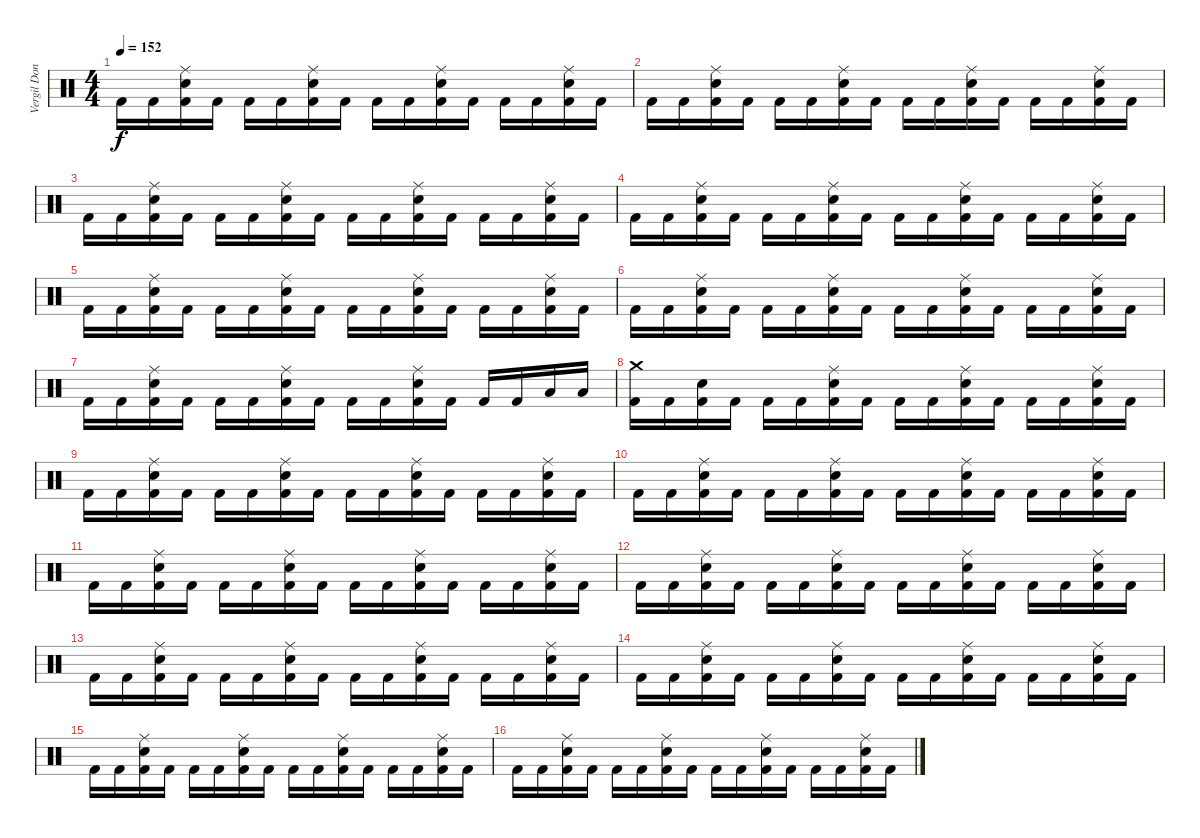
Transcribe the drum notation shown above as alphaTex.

\track ("Vergil Donati" "Vergil Don") {instrument percussion}
\staff {score}
\articulation defaults
\ts (4 4)
\tempo 152
\clef neutral
\ks c "Kick (hit) 2".16{dy f} "Kick (hit) 2".16
("Electric Snare (hit)" "Ride (middle)" "Kick (hit) 2").16 "Kick (hit) 2".16 "Kick (hit) 2".16 "Kick (hit) 2".16 ("Electric Snare (hit)" "Ride (middle)" "Kick (hit) 2").16 "Kick (hit) 2".16 "Kick (hit) 2".16 "Kick (hit) 2".16 ("Electric Snare (hit)" "Ride (middle)" "Kick (hit) 2").16 "Kick (hit) 2".16 "Kick (hit) 2".16 "Kick (hit) 2".16 ("Electric Snare (hit)" "Ride (middle)" "Kick (hit) 2").16 "Kick (hit) 2".16 |
"Kick (hit) 2".16 "Kick (hit) 2".16 ("Electric Snare (hit)" "Ride (middle)" "Kick (hit) 2").16 "Kick (hit) 2".16 "Kick (hit) 2".16 "Kick (hit) 2".16 ("Electric Snare (hit)" "Ride (middle)" "Kick (hit) 2").16 "Kick (hit) 2".16 "Kick (hit) 2".16 "Kick (hit) 2".16 ("Electric Snare (hit)" "Ride (middle)" "Kick (hit) 2").16 "Kick (hit) 2".16 "Kick (hit) 2".16 "Kick (hit) 2".16 ("Electric Snare (hit)" "Ride (middle)" "Kick (hit) 2").16 "Kick (hit) 2".16 |
"Kick (hit) 2".16 "Kick (hit) 2".16 ("Electric Snare (hit)" "Ride (middle)" "Kick (hit) 2").16 "Kick (hit) 2".16 "Kick (hit) 2".16 "Kick (hit) 2".16 ("Electric Snare (hit)" "Ride (middle)" "Kick (hit) 2").16 "Kick (hit) 2".16 "Kick (hit) 2".16 "Kick (hit) 2".16 ("Electric Snare (hit)" "Ride (middle)" "Kick (hit) 2").16 "Kick (hit) 2".16 "Kick (hit) 2".16 "Kick (hit) 2".16 ("Electric Snare (hit)" "Ride (middle)" "Kick (hit) 2").16 "Kick (hit) 2".16 |
"Kick (hit) 2".16 "Kick (hit) 2".16 ("Electric Snare (hit)" "Ride (middle)" "Kick (hit) 2").16 "Kick (hit) 2".16 "Kick (hit) 2".16 "Kick (hit) 2".16 ("Electric Snare (hit)" "Ride (middle)" "Kick (hit) 2").16 "Kick (hit) 2".16 "Kick (hit) 2".16 "Kick (hit) 2".16 ("Electric Snare (hit)" "Ride (middle)" "Kick (hit) 2").16 "Kick (hit) 2".16 "Kick (hit) 2".16 "Kick (hit) 2".16 ("Electric Snare (hit)" "Ride (middle)" "Kick (hit) 2").16 "Kick (hit) 2".16 |
"Kick (hit) 2".16 "Kick (hit) 2".16 ("Electric Snare (hit)" "Ride (middle)" "Kick (hit) 2").16 "Kick (hit) 2".16 "Kick (hit) 2".16 "Kick (hit) 2".16 ("Electric Snare (hit)" "Ride (middle)" "Kick (hit) 2").16 "Kick (hit) 2".16 "Kick (hit) 2".16 "Kick (hit) 2".16 ("Electric Snare (hit)" "Ride (middle)" "Kick (hit) 2").16 "Kick (hit) 2".16 "Kick (hit) 2".16 "Kick (hit) 2".16 ("Electric Snare (hit)" "Ride (middle)" "Kick (hit) 2").16 "Kick (hit) 2".16 |
"Kick (hit) 2".16 "Kick (hit) 2".16 ("Electric Snare (hit)" "Ride (middle)" "Kick (hit) 2").16 "Kick (hit) 2".16 "Kick (hit) 2".16 "Kick (hit) 2".16 ("Electric Snare (hit)" "Ride (middle)" "Kick (hit) 2").16 "Kick (hit) 2".16 "Kick (hit) 2".16 "Kick (hit) 2".16 ("Electric Snare (hit)" "Ride (middle)" "Kick (hit) 2").16 "Kick (hit) 2".16 "Kick (hit) 2".16 "Kick (hit) 2".16 ("Electric Snare (hit)" "Ride (middle)" "Kick (hit) 2").16 "Kick (hit) 2".16 |
"Kick (hit) 2".16 "Kick (hit) 2".16 ("Electric Snare (hit)" "Ride (middle)" "Kick (hit) 2").16 "Kick (hit) 2".16 "Kick (hit) 2".16 "Kick (hit) 2".16 ("Electric Snare (hit)" "Ride (middle)" "Kick (hit) 2").16 "Kick (hit) 2".16 "Kick (hit) 2".16 "Kick (hit) 2".16 ("Electric Snare (hit)" "Ride (middle)" "Kick (hit) 2").16 "Kick (hit) 2".16 "Kick (hit) 2".16 "Kick (hit) 2".16 "Low Floor Tom (hit)".16 "Low Floor Tom (hit)".16 |
("Crash medium (hit)" "Kick (hit) 2").16 "Kick (hit) 2".16 ("Electric Snare (hit)" "Kick (hit) 2").16 "Kick (hit) 2".16 "Kick (hit) 2".16 "Kick (hit) 2".16 ("Electric Snare (hit)" "Ride (middle)" "Kick (hit) 2").16 "Kick (hit) 2".16 "Kick (hit) 2".16 "Kick (hit) 2".16 ("Electric Snare (hit)" "Ride (middle)" "Kick (hit) 2").16 "Kick (hit) 2".16 "Kick (hit) 2".16 "Kick (hit) 2".16 ("Electric Snare (hit)" "Ride (middle)" "Kick (hit) 2").16 "Kick (hit) 2".16 |
"Kick (hit) 2".16 "Kick (hit) 2".16 ("Electric Snare (hit)" "Ride (middle)" "Kick (hit) 2").16 "Kick (hit) 2".16 "Kick (hit) 2".16 "Kick (hit) 2".16 ("Electric Snare (hit)" "Ride (middle)" "Kick (hit) 2").16 "Kick (hit) 2".16 "Kick (hit) 2".16 "Kick (hit) 2".16 ("Electric Snare (hit)" "Ride (middle)" "Kick (hit) 2").16 "Kick (hit) 2".16 "Kick (hit) 2".16 "Kick (hit) 2".16 ("Electric Snare (hit)" "Ride (middle)" "Kick (hit) 2").16 "Kick (hit) 2".16 |
"Kick (hit) 2".16 "Kick (hit) 2".16 ("Electric Snare (hit)" "Ride (middle)" "Kick (hit) 2").16 "Kick (hit) 2".16 "Kick (hit) 2".16 "Kick (hit) 2".16 ("Electric Snare (hit)" "Ride (middle)" "Kick (hit) 2").16 "Kick (hit) 2".16 "Kick (hit) 2".16 "Kick (hit) 2".16 ("Electric Snare (hit)" "Ride (middle)" "Kick (hit) 2").16 "Kick (hit) 2".16 "Kick (hit) 2".16 "Kick (hit) 2".16 ("Electric Snare (hit)" "Ride (middle)" "Kick (hit) 2").16 "Kick (hit) 2".16 |
"Kick (hit) 2".16 "Kick (hit) 2".16 ("Electric Snare (hit)" "Ride (middle)" "Kick (hit) 2").16 "Kick (hit) 2".16 "Kick (hit) 2".16 "Kick (hit) 2".16 ("Electric Snare (hit)" "Ride (middle)" "Kick (hit) 2").16 "Kick (hit) 2".16 "Kick (hit) 2".16 "Kick (hit) 2".16 ("Electric Snare (hit)" "Ride (middle)" "Kick (hit) 2").16 "Kick (hit) 2".16 "Kick (hit) 2".16 "Kick (hit) 2".16 ("Electric Snare (hit)" "Ride (middle)" "Kick (hit) 2").16 "Kick (hit) 2".16 |
"Kick (hit) 2".16 "Kick (hit) 2".16 ("Electric Snare (hit)" "Ride (middle)" "Kick (hit) 2").16 "Kick (hit) 2".16 "Kick (hit) 2".16 "Kick (hit) 2".16 ("Electric Snare (hit)" "Ride (middle)" "Kick (hit) 2").16 "Kick (hit) 2".16 "Kick (hit) 2".16 "Kick (hit) 2".16 ("Electric Snare (hit)" "Ride (middle)" "Kick (hit) 2").16 "Kick (hit) 2".16 "Kick (hit) 2".16 "Kick (hit) 2".16 ("Electric Snare (hit)" "Ride (middle)" "Kick (hit) 2").16 "Kick (hit) 2".16 |
"Kick (hit) 2".16 "Kick (hit) 2".16 ("Electric Snare (hit)" "Ride (middle)" "Kick (hit) 2").16 "Kick (hit) 2".16 "Kick (hit) 2".16 "Kick (hit) 2".16 ("Electric Snare (hit)" "Ride (middle)" "Kick (hit) 2").16 "Kick (hit) 2".16 "Kick (hit) 2".16 "Kick (hit) 2".16 ("Electric Snare (hit)" "Ride (middle)" "Kick (hit) 2").16 "Kick (hit) 2".16 "Kick (hit) 2".16 "Kick (hit) 2".16 ("Electric Snare (hit)" "Ride (middle)" "Kick (hit) 2").16 "Kick (hit) 2".16 |
"Kick (hit) 2".16 "Kick (hit) 2".16 ("Electric Snare (hit)" "Ride (middle)" "Kick (hit) 2").16 "Kick (hit) 2".16 "Kick (hit) 2".16 "Kick (hit) 2".16 ("Electric Snare (hit)" "Ride (middle)" "Kick (hit) 2").16 "Kick (hit) 2".16 "Kick (hit) 2".16 "Kick (hit) 2".16 ("Electric Snare (hit)" "Ride (middle)" "Kick (hit) 2").16 "Kick (hit) 2".16 "Kick (hit) 2".16 "Kick (hit) 2".16 ("Electric Snare (hit)" "Ride (middle)" "Kick (hit) 2").16 "Kick (hit) 2".16 |
"Kick (hit) 2".16 "Kick (hit) 2".16 ("Electric Snare (hit)" "Ride (middle)" "Kick (hit) 2").16 "Kick (hit) 2".16 "Kick (hit) 2".16 "Kick (hit) 2".16 ("Electric Snare (hit)" "Ride (middle)" "Kick (hit) 2").16 "Kick (hit) 2".16 "Kick (hit) 2".16 "Kick (hit) 2".16 ("Electric Snare (hit)" "Ride (middle)" "Kick (hit) 2").16 "Kick (hit) 2".16 "Kick (hit) 2".16 "Kick (hit) 2".16 ("Electric Snare (hit)" "Ride (middle)" "Kick (hit) 2").16 "Kick (hit) 2".16 |
"Kick (hit) 2".16 "Kick (hit) 2".16 ("Electric Snare (hit)" "Ride (middle)" "Kick (hit) 2").16 "Kick (hit) 2".16 "Kick (hit) 2".16 "Kick (hit) 2".16 ("Electric Snare (hit)" "Ride (middle)" "Kick (hit) 2").16 "Kick (hit) 2".16 "Kick (hit) 2".16 "Kick (hit) 2".16 ("Electric Snare (hit)" "Ride (middle)" "Kick (hit) 2").16 "Kick (hit) 2".16 "Kick (hit) 2".16 "Kick (hit) 2".16 ("Electric Snare (hit)" "Ride (middle)" "Kick (hit) 2").16 "Kick (hit) 2".16
